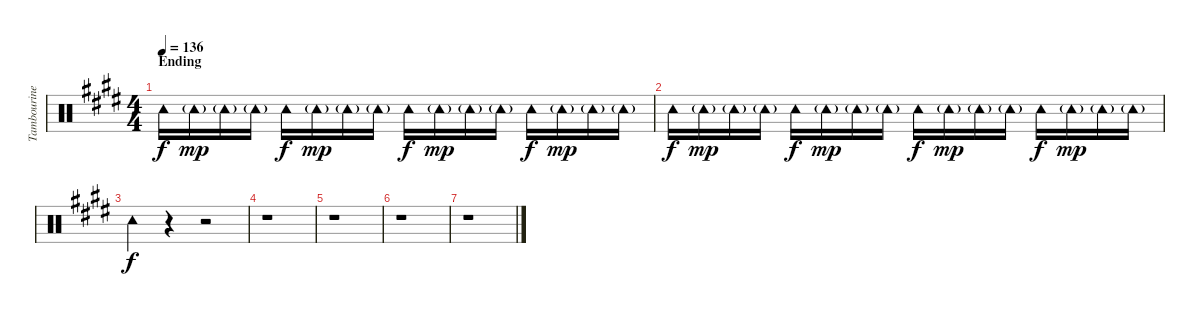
\track ("Tambourine" "Tambourine") {instrument percussion}
\staff {score}
\articulation defaults
\ts (4 4)
\section ("" "Ending")
\tempo 136
\clef neutral
\ks e "Tambourine (hit)".16{dy f} "Tambourine (hit)"{g}.16{dy mp} "Tambourine (hit)"{g}.16 "Tambourine (hit)"{g}.16 "Tambourine (hit)".16{dy f} "Tambourine (hit)"{g}.16{dy mp} "Tambourine (hit)"{g}.16 "Tambourine (hit)"{g}.16 "Tambourine (hit)".16{dy f} "Tambourine (hit)"{g}.16{dy mp} "Tambourine (hit)"{g}.16 "Tambourine (hit)"{g}.16 "Tambourine (hit)".16{dy f} "Tambourine (hit)"{g}.16{dy mp} "Tambourine (hit)"{g}.16 "Tambourine (hit)"{g}.16
|
"Tambourine (hit)".16{dy f} "Tambourine (hit)"{g}.16{dy mp} "Tambourine (hit)"{g}.16 "Tambourine (hit)"{g}.16 "Tambourine (hit)".16{dy f} "Tambourine (hit)"{g}.16{dy mp} "Tambourine (hit)"{g}.16 "Tambourine (hit)"{g}.16 "Tambourine (hit)".16{dy f} "Tambourine (hit)"{g}.16{dy mp} "Tambourine (hit)"{g}.16 "Tambourine (hit)"{g}.16 "Tambourine (hit)".16{dy f} "Tambourine (hit)"{g}.16{dy mp} "Tambourine (hit)"{g}.16 "Tambourine (hit)"{g}.16 |
"Tambourine (hit)".4{dy f} r.4 r.2 |
r.1 |
r.1 |
r.1 |
r.1
